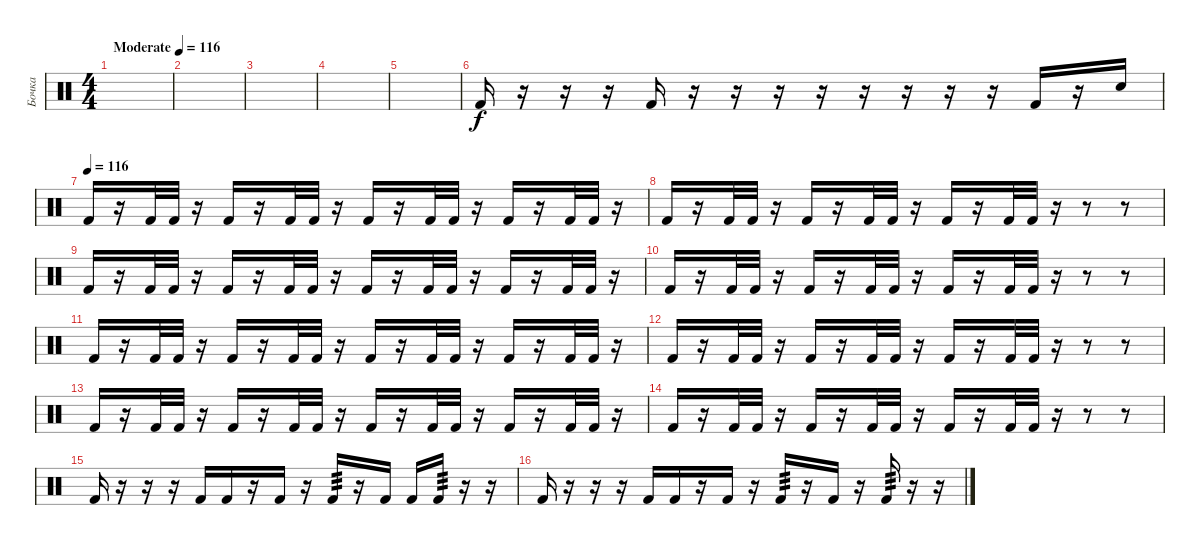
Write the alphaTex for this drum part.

\track ("Бочка" "Бочка") {instrument percussion}
\staff {score}
\articulation defaults
\ts (4 4)
\tempo (116 "Moderate")
\clef neutral
\ks c
|
|
|
|
|
"Kick (hit) 2".16 r.16 r.16 r.16 "Kick (hit) 2".16 r.16 r.16 r.16 r.16 r.16 r.16 r.16 r.16 "Kick (hit) 2".16 r.16 "Snare (hit)".16 |
\tempo (116)
"Kick (hit) 2".16 r.16 "Kick (hit) 2".32 "Kick (hit) 2".32 r.16 "Kick (hit) 2".16 r.16 "Kick (hit) 2".32 "Kick (hit) 2".32 r.16 "Kick (hit) 2".16 r.16 "Kick (hit) 2".32 "Kick (hit) 2".32 r.16 "Kick (hit) 2".16 r.16 "Kick (hit) 2".32 "Kick (hit) 2".32 r.16 |
"Kick (hit) 2".16 r.16 "Kick (hit) 2".32 "Kick (hit) 2".32 r.16 "Kick (hit) 2".16 r.16 "Kick (hit) 2".32 "Kick (hit) 2".32 r.16 "Kick (hit) 2".16 r.16 "Kick (hit) 2".32 "Kick (hit) 2".32 r.16 r.8 r.8 |
"Kick (hit) 2".16 r.16 "Kick (hit) 2".32 "Kick (hit) 2".32 r.16 "Kick (hit) 2".16 r.16 "Kick (hit) 2".32 "Kick (hit) 2".32 r.16 "Kick (hit) 2".16 r.16 "Kick (hit) 2".32 "Kick (hit) 2".32 r.16 "Kick (hit) 2".16 r.16 "Kick (hit) 2".32 "Kick (hit) 2".32 r.16 |
"Kick (hit) 2".16 r.16 "Kick (hit) 2".32 "Kick (hit) 2".32 r.16 "Kick (hit) 2".16 r.16 "Kick (hit) 2".32 "Kick (hit) 2".32 r.16 "Kick (hit) 2".16 r.16 "Kick (hit) 2".32 "Kick (hit) 2".32 r.16 r.8 r.8 |
"Kick (hit) 2".16 r.16 "Kick (hit) 2".32 "Kick (hit) 2".32 r.16 "Kick (hit) 2".16 r.16 "Kick (hit) 2".32 "Kick (hit) 2".32 r.16 "Kick (hit) 2".16 r.16 "Kick (hit) 2".32 "Kick (hit) 2".32 r.16 "Kick (hit) 2".16 r.16 "Kick (hit) 2".32 "Kick (hit) 2".32 r.16 |
"Kick (hit) 2".16 r.16 "Kick (hit) 2".32 "Kick (hit) 2".32 r.16 "Kick (hit) 2".16 r.16 "Kick (hit) 2".32 "Kick (hit) 2".32 r.16 "Kick (hit) 2".16 r.16 "Kick (hit) 2".32 "Kick (hit) 2".32 r.16 r.8 r.8 |
"Kick (hit) 2".16 r.16 "Kick (hit) 2".32 "Kick (hit) 2".32 r.16 "Kick (hit) 2".16 r.16 "Kick (hit) 2".32 "Kick (hit) 2".32 r.16 "Kick (hit) 2".16 r.16 "Kick (hit) 2".32 "Kick (hit) 2".32 r.16 "Kick (hit) 2".16 r.16 "Kick (hit) 2".32 "Kick (hit) 2".32 r.16 |
"Kick (hit) 2".16 r.16 "Kick (hit) 2".32 "Kick (hit) 2".32 r.16 "Kick (hit) 2".16 r.16 "Kick (hit) 2".32 "Kick (hit) 2".32 r.16 "Kick (hit) 2".16 r.16 "Kick (hit) 2".32 "Kick (hit) 2".32 r.16 r.8 r.8 |
"Kick (hit) 2".16 r.16 r.16 r.16 "Kick (hit) 2".16 "Kick (hit) 2".16 r.16 "Kick (hit) 2".16 r.16 "Kick (hit) 2".16{tp 3} r.16 "Kick (hit) 2".16 "Kick (hit) 2".16 "Kick (hit) 2".16{tp 3} r.16 r.16 |
"Kick (hit) 2".16 r.16 r.16 r.16 "Kick (hit) 2".16 "Kick (hit) 2".16 r.16 "Kick (hit) 2".16 r.16 "Kick (hit) 2".16{tp 3} r.16 "Kick (hit) 2".16 r.16 "Kick (hit) 2".16{tp 3} r.16 r.16
